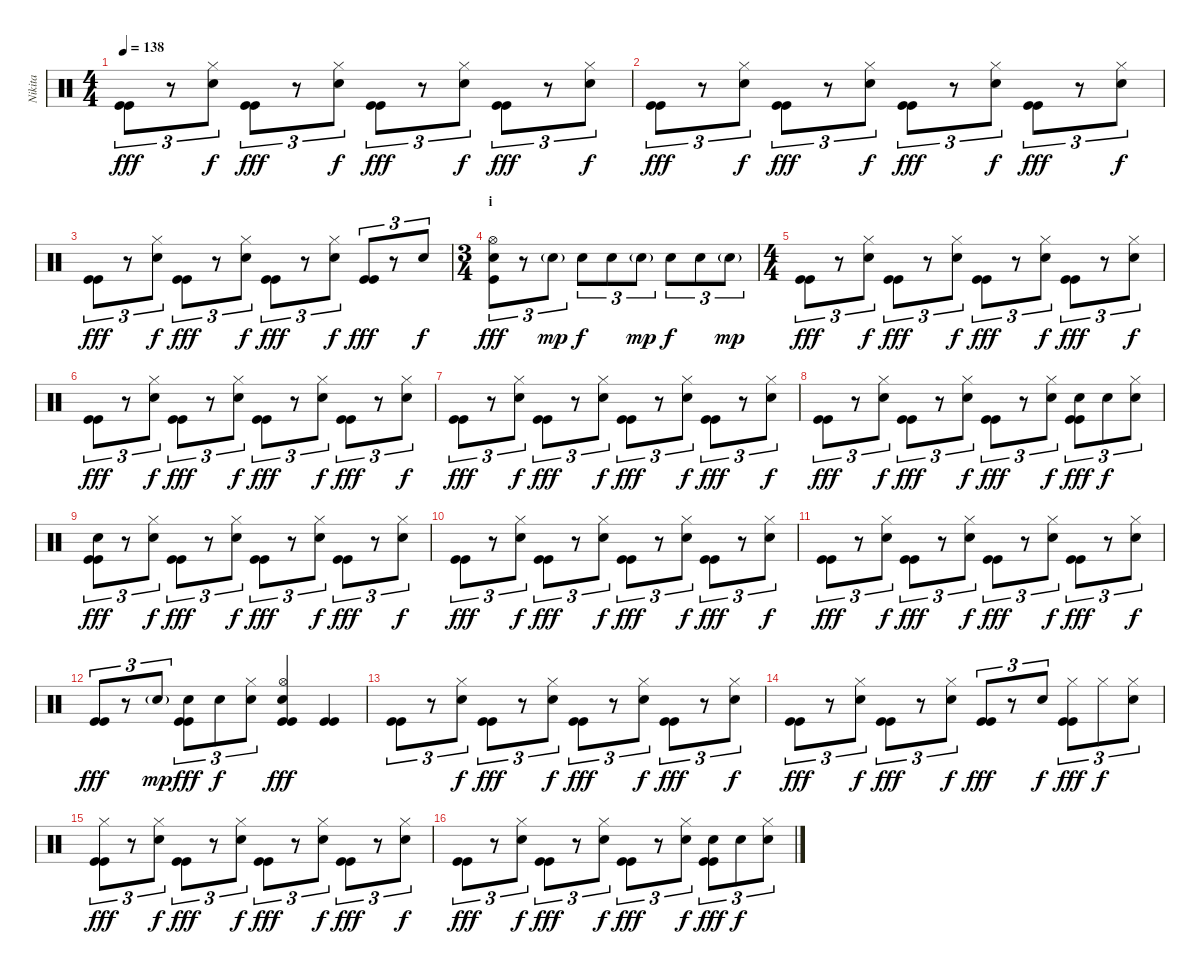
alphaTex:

\track ("Nikita" "Nikita") {instrument percussion}
\staff {score}
\articulation defaults
\ts (4 4)
\tempo 138
\clef neutral
\ks c
("Kick (hit)" "Kick (hit)").8{tu (3 2) dy fff} r.8{tu (3 2)} ("Snare (hit) 2" "Hi-Hat (closed)").8{tu (3 2) dy f} ("Kick (hit)" "Kick (hit)").8{tu (3 2) dy fff} r.8{tu (3 2)} ("Snare (hit) 2" "Hi-Hat (closed)").8{tu (3 2) dy f} ("Kick (hit)" "Kick (hit)").8{tu (3 2) dy fff} r.8{tu (3 2)} ("Snare (hit) 2" "Hi-Hat (closed)").8{tu (3 2) dy f} ("Kick (hit)" "Kick (hit)").8{tu (3 2) dy fff} r.8{tu (3 2)} ("Snare (hit) 2" "Hi-Hat (closed)").8{tu (3 2) dy f} |
("Kick (hit)" "Kick (hit)").8{tu (3 2) dy fff} r.8{tu (3 2)} ("Snare (hit) 2" "Hi-Hat (closed)").8{tu (3 2) dy f} ("Kick (hit)" "Kick (hit)").8{tu (3 2) dy fff} r.8{tu (3 2)} ("Snare (hit) 2" "Hi-Hat (closed)").8{tu (3 2) dy f} ("Kick (hit)" "Kick (hit)").8{tu (3 2) dy fff} r.8{tu (3 2)} ("Snare (hit) 2" "Hi-Hat (closed)").8{tu (3 2) dy f} ("Kick (hit)" "Kick (hit)").8{tu (3 2) dy fff} r.8{tu (3 2)} ("Snare (hit) 2" "Hi-Hat (closed)").8{tu (3 2) dy f} |
("Kick (hit)" "Kick (hit)").8{tu (3 2) dy fff} r.8{tu (3 2)} ("Snare (hit) 2" "Hi-Hat (closed)").8{tu (3 2) dy f} ("Kick (hit)" "Kick (hit)").8{tu (3 2) dy fff} r.8{tu (3 2)} ("Snare (hit) 2" "Hi-Hat (closed)").8{tu (3 2) dy f} ("Kick (hit)" "Kick (hit)").8{tu (3 2) dy fff} r.8{tu (3 2)} ("Snare (hit) 2" "Hi-Hat (closed)").8{tu (3 2) dy f} ("Kick (hit)" "Kick (hit)").8{tu (3 2) dy fff} r.8{tu (3 2)} "Snare (hit) 2".8{tu (3 2) dy f} |
\ts (3 4)
\section ("" "i")
("Kick (hit)" "Snare (hit) 2" "Hi-Hat (open)").8{tu (3 2) dy fff} r.8{tu (3 2)} "Snare (hit) 2"{g}.8{tu (3 2) dy mp} "Snare (hit) 2".8{tu (3 2) dy f} "Snare (hit) 2".8{tu (3 2)} "Snare (hit) 2"{g}.8{tu (3 2) dy mp} "Snare (hit) 2".8{tu (3 2) dy f} "Snare (hit) 2".8{tu (3 2)} "Snare (hit) 2"{g}.8{tu (3 2) dy mp} |
\ts (4 4)
\section ("" "")
("Kick (hit)" "Kick (hit)").8{tu (3 2) dy fff} r.8{tu (3 2)} ("Snare (hit) 2" "Hi-Hat (closed)").8{tu (3 2) dy f} ("Kick (hit)" "Kick (hit)").8{tu (3 2) dy fff} r.8{tu (3 2)} ("Snare (hit) 2" "Hi-Hat (closed)").8{tu (3 2) dy f} ("Kick (hit)" "Kick (hit)").8{tu (3 2) dy fff} r.8{tu (3 2)} ("Snare (hit) 2" "Hi-Hat (closed)").8{tu (3 2) dy f} ("Kick (hit)" "Kick (hit)").8{tu (3 2) dy fff} r.8{tu (3 2)} ("Snare (hit) 2" "Hi-Hat (closed)").8{tu (3 2) dy f} |
("Kick (hit)" "Kick (hit)").8{tu (3 2) dy fff} r.8{tu (3 2)} ("Snare (hit) 2" "Hi-Hat (closed)").8{tu (3 2) dy f} ("Kick (hit)" "Kick (hit)").8{tu (3 2) dy fff} r.8{tu (3 2)} ("Snare (hit) 2" "Hi-Hat (closed)").8{tu (3 2) dy f} ("Kick (hit)" "Kick (hit)").8{tu (3 2) dy fff} r.8{tu (3 2)} ("Snare (hit) 2" "Hi-Hat (closed)").8{tu (3 2) dy f} ("Kick (hit)" "Kick (hit)").8{tu (3 2) dy fff} r.8{tu (3 2)} ("Snare (hit) 2" "Hi-Hat (closed)").8{tu (3 2) dy f} |
("Kick (hit)" "Kick (hit)").8{tu (3 2) dy fff} r.8{tu (3 2)} ("Snare (hit) 2" "Hi-Hat (closed)").8{tu (3 2) dy f} ("Kick (hit)" "Kick (hit)").8{tu (3 2) dy fff} r.8{tu (3 2)} ("Snare (hit) 2" "Hi-Hat (closed)").8{tu (3 2) dy f} ("Kick (hit)" "Kick (hit)").8{tu (3 2) dy fff} r.8{tu (3 2)} ("Snare (hit) 2" "Hi-Hat (closed)").8{tu (3 2) dy f} ("Kick (hit)" "Kick (hit)").8{tu (3 2) dy fff} r.8{tu (3 2)} ("Snare (hit) 2" "Hi-Hat (closed)").8{tu (3 2) dy f} |
("Kick (hit)" "Kick (hit)").8{tu (3 2) dy fff} r.8{tu (3 2)} ("Snare (hit) 2" "Hi-Hat (closed)").8{tu (3 2) dy f} ("Kick (hit)" "Kick (hit)").8{tu (3 2) dy fff} r.8{tu (3 2)} ("Snare (hit) 2" "Hi-Hat (closed)").8{tu (3 2) dy f} ("Kick (hit)" "Kick (hit)").8{tu (3 2) dy fff} r.8{tu (3 2)} ("Electric Snare (hit)" "Hi-Hat (closed)").8{tu (3 2) dy f} ("Kick (hit)" "Kick (hit)" "Electric Snare (hit)").8{tu (3 2) dy fff} "Electric Snare (hit)".8{tu (3 2) dy f} ("Electric Snare (hit)" "Hi-Hat (closed)").8{tu (3 2)} |
("Kick (hit)" "Kick (hit)" "Electric Snare (hit)").8{tu (3 2) dy fff} r.8{tu (3 2)} ("Snare (hit) 2" "Hi-Hat (closed)").8{tu (3 2) dy f} ("Kick (hit)" "Kick (hit)").8{tu (3 2) dy fff} r.8{tu (3 2)} ("Snare (hit) 2" "Hi-Hat (closed)").8{tu (3 2) dy f} ("Kick (hit)" "Kick (hit)").8{tu (3 2) dy fff} r.8{tu (3 2)} ("Snare (hit) 2" "Hi-Hat (closed)").8{tu (3 2) dy f} ("Kick (hit)" "Kick (hit)").8{tu (3 2) dy fff} r.8{tu (3 2)} ("Snare (hit) 2" "Hi-Hat (closed)").8{tu (3 2) dy f} |
("Kick (hit)" "Kick (hit)").8{tu (3 2) dy fff} r.8{tu (3 2)} ("Snare (hit) 2" "Hi-Hat (closed)").8{tu (3 2) dy f} ("Kick (hit)" "Kick (hit)").8{tu (3 2) dy fff} r.8{tu (3 2)} ("Snare (hit) 2" "Hi-Hat (closed)").8{tu (3 2) dy f} ("Kick (hit)" "Kick (hit)").8{tu (3 2) dy fff} r.8{tu (3 2)} ("Snare (hit) 2" "Hi-Hat (closed)").8{tu (3 2) dy f} ("Kick (hit)" "Kick (hit)").8{tu (3 2) dy fff} r.8{tu (3 2)} ("Snare (hit) 2" "Hi-Hat (closed)").8{tu (3 2) dy f} |
("Kick (hit)" "Kick (hit)").8{tu (3 2) dy fff} r.8{tu (3 2)} ("Snare (hit) 2" "Hi-Hat (closed)").8{tu (3 2) dy f} ("Kick (hit)" "Kick (hit)").8{tu (3 2) dy fff} r.8{tu (3 2)} ("Snare (hit) 2" "Hi-Hat (closed)").8{tu (3 2) dy f} ("Kick (hit)" "Kick (hit)").8{tu (3 2) dy fff} r.8{tu (3 2)} ("Snare (hit) 2" "Hi-Hat (closed)").8{tu (3 2) dy f} ("Kick (hit)" "Kick (hit)").8{tu (3 2) dy fff} r.8{tu (3 2)} ("Snare (hit) 2" "Hi-Hat (closed)").8{tu (3 2) dy f} |
("Kick (hit)" "Kick (hit)").8{tu (3 2) dy fff} r.8{tu (3 2)} "Electric Snare (hit)"{g}.8{tu (3 2) dy mp} ("Kick (hit)" "Kick (hit)" "Electric Snare (hit)").8{tu (3 2) dy fff} "Electric Snare (hit)".8{tu (3 2) dy f} ("Electric Snare (hit)" "Hi-Hat (closed)").8{tu (3 2)} ("Kick (hit)" "Kick (hit)" "Electric Snare (hit)" "Hi-Hat (open)").4{dy fff} ("Kick (hit)" "Kick (hit)").4 |
("Kick (hit)" "Kick (hit)").8{tu (3 2)} r.8{tu (3 2)} ("Snare (hit) 2" "Hi-Hat (closed)").8{tu (3 2) dy f} ("Kick (hit)" "Kick (hit)").8{tu (3 2) dy fff} r.8{tu (3 2)} ("Snare (hit) 2" "Hi-Hat (closed)").8{tu (3 2) dy f} ("Kick (hit)" "Kick (hit)").8{tu (3 2) dy fff} r.8{tu (3 2)} ("Snare (hit) 2" "Hi-Hat (closed)").8{tu (3 2) dy f} ("Kick (hit)" "Kick (hit)").8{tu (3 2) dy fff} r.8{tu (3 2)} ("Snare (hit) 2" "Hi-Hat (closed)").8{tu (3 2) dy f} |
("Kick (hit)" "Kick (hit)").8{tu (3 2) dy fff} r.8{tu (3 2)} ("Snare (hit) 2" "Hi-Hat (closed)").8{tu (3 2) dy f} ("Kick (hit)" "Kick (hit)").8{tu (3 2) dy fff} r.8{tu (3 2)} ("Snare (hit) 2" "Hi-Hat (closed)").8{tu (3 2) dy f} ("Kick (hit)" "Kick (hit)").8{tu (3 2) dy fff} r.8{tu (3 2)} "Snare (hit) 2".8{tu (3 2) dy f} ("Kick (hit)" "Kick (hit)" "Hi-Hat (closed)").8{tu (3 2) dy fff} "Hi-Hat (closed)".8{tu (3 2) dy f} ("Snare (hit) 2" "Hi-Hat (closed)").8{tu (3 2)} |
("Kick (hit)" "Kick (hit)" "Hi-Hat (closed)").8{tu (3 2) dy fff} r.8{tu (3 2)} ("Snare (hit) 2" "Hi-Hat (closed)").8{tu (3 2) dy f} ("Kick (hit)" "Kick (hit)").8{tu (3 2) dy fff} r.8{tu (3 2)} ("Snare (hit) 2" "Hi-Hat (closed)").8{tu (3 2) dy f} ("Kick (hit)" "Kick (hit)").8{tu (3 2) dy fff} r.8{tu (3 2)} ("Snare (hit) 2" "Hi-Hat (closed)").8{tu (3 2) dy f} ("Kick (hit)" "Kick (hit)").8{tu (3 2) dy fff} r.8{tu (3 2)} ("Snare (hit) 2" "Hi-Hat (closed)").8{tu (3 2) dy f} |
("Kick (hit)" "Kick (hit)").8{tu (3 2) dy fff} r.8{tu (3 2)} ("Snare (hit) 2" "Hi-Hat (closed)").8{tu (3 2) dy f} ("Kick (hit)" "Kick (hit)").8{tu (3 2) dy fff} r.8{tu (3 2)} ("Snare (hit) 2" "Hi-Hat (closed)").8{tu (3 2) dy f} ("Kick (hit)" "Kick (hit)").8{tu (3 2) dy fff} r.8{tu (3 2)} ("Electric Snare (hit)" "Hi-Hat (closed)").8{tu (3 2) dy f} ("Kick (hit)" "Kick (hit)" "Electric Snare (hit)").8{tu (3 2) dy fff} "Electric Snare (hit)".8{tu (3 2) dy f} ("Electric Snare (hit)" "Hi-Hat (closed)").8{tu (3 2)}
